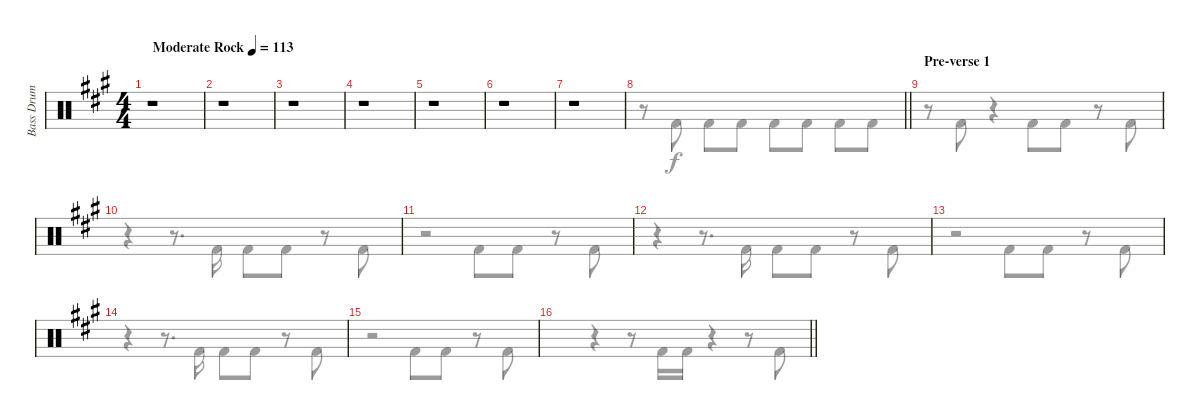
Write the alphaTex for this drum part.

\track ("Bass Drum" "Bass Drum") {instrument percussion}
\staff {score}
\articulation defaults
\voice
\ts (4 4)
\tempo (113 "Moderate Rock")
\clef neutral
\ks f#minor
r.1{dy f} |
r.1 |
r.1 |
r.1 |
r.1 |
r.1 |
r.1 |
\barLineRight lightlight
|
\section ("" "Pre-verse 1")
|
|
|
|
|
|
|
\barLineRight lightlight
\voice
\clef neutral
\ottava regular
\simile none
\ks f#minor
|
|
|
|
|
|
|
\barLineRight lightlight
r.8 "Kick (hit) 2".8 "Kick (hit) 2".8 "Kick (hit) 2".8 "Kick (hit) 2".8 "Kick (hit) 2".8 "Kick (hit) 2".8 "Kick (hit) 2".8 |
r.8 "Kick (hit) 2".8 r.4 "Kick (hit) 2".8 "Kick (hit) 2".8 r.8 "Kick (hit) 2".8 |
r.4 r.8{d} "Kick (hit) 2".16 "Kick (hit) 2".8 "Kick (hit) 2".8 r.8 "Kick (hit) 2".8 |
r.2 "Kick (hit) 2".8 "Kick (hit) 2".8 r.8 "Kick (hit) 2".8 |
r.4 r.8{d} "Kick (hit) 2".16 "Kick (hit) 2".8 "Kick (hit) 2".8 r.8 "Kick (hit) 2".8 |
r.2 "Kick (hit) 2".8 "Kick (hit) 2".8 r.8 "Kick (hit) 2".8 |
r.4 r.8{d} "Kick (hit) 2".16 "Kick (hit) 2".8 "Kick (hit) 2".8 r.8 "Kick (hit) 2".8 |
r.2 "Kick (hit) 2".8 "Kick (hit) 2".8 r.8 "Kick (hit) 2".8 |
\barLineRight lightlight
r.4 r.8 "Kick (hit) 2".16 "Kick (hit) 2".16 r.4 r.8 "Kick (hit) 2".8
